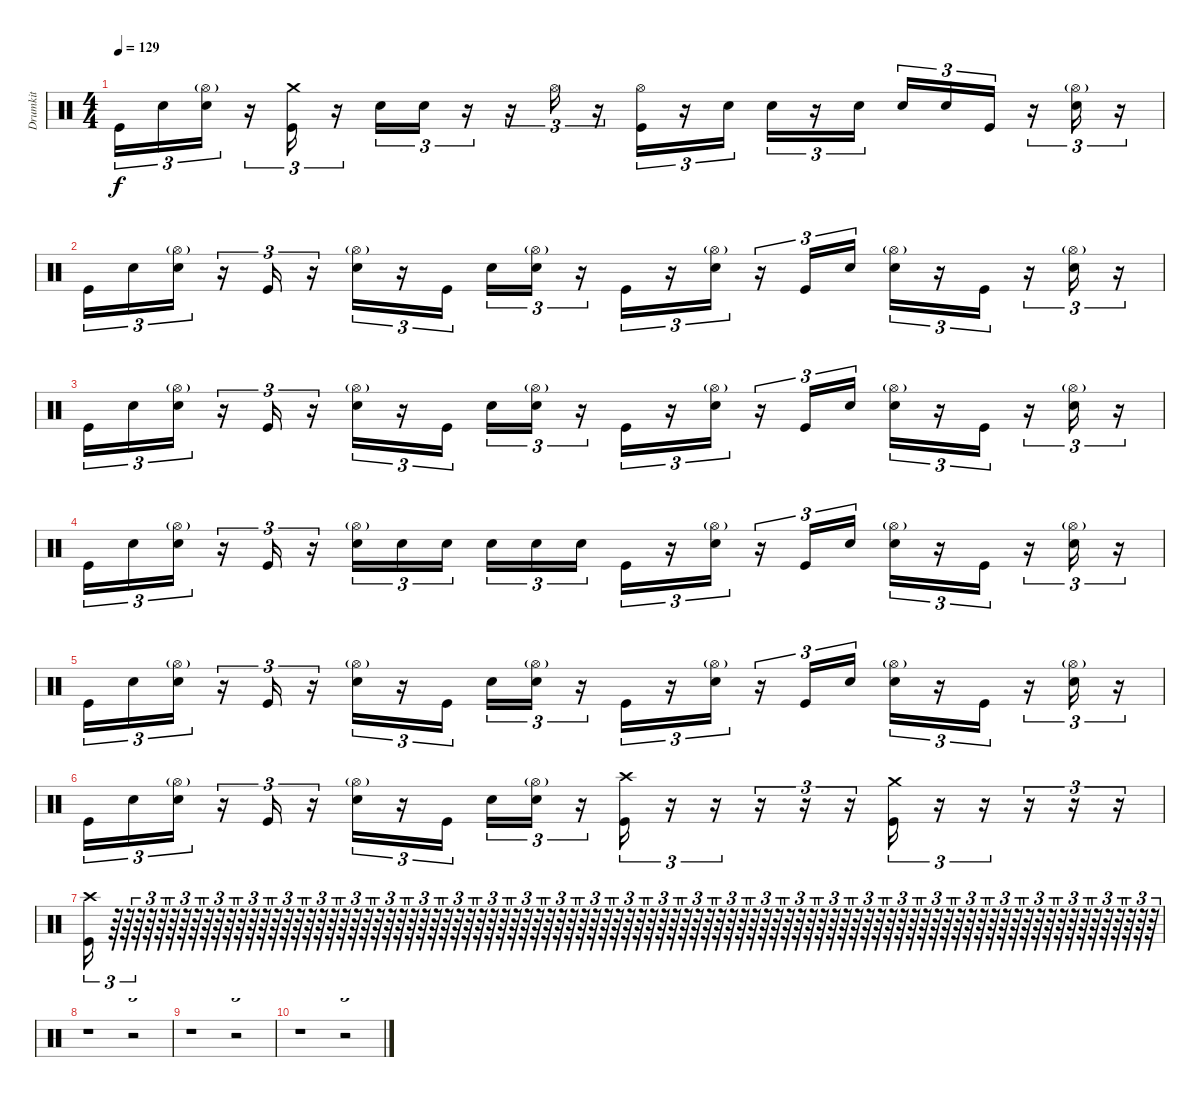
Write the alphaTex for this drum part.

\track ("Drumkit" "Drumkit") {instrument percussion}
\staff {score}
\articulation defaults
\ts (4 4)
\tempo 129
\clef neutral
\ks c "Kick (hit)".16{tu (3 2) dy f} "Snare (hit) 2".16{tu (3 2)}
("Snare (hit) 2" "Hi-Hat (open)"{g}).16{tu (3 2)} r.16{tu (3 2)} ("Kick (hit)" "Crash medium (hit)").16{tu (3 2)} r.16{tu (3 2)} "Snare (hit) 2".16{tu (3 2)} "Snare (hit) 2".16{tu (3 2)} r.16{tu (3 2)} r.16{tu (3 2)} "Hi-Hat (open)".16{tu (3 2)} r.16{tu (3 2)} ("Kick (hit)" "Hi-Hat (open)").16{tu (3 2)} r.16{tu (3 2)} "Snare (hit) 2".16{tu (3 2)} "Snare (hit) 2".16{tu (3 2)} r.16{tu (3 2)} "Snare (hit) 2".16{tu (3 2)} "Snare (hit) 2".16{tu (3 2)} "Snare (hit) 2".16{tu (3 2)} "Kick (hit)".16{tu (3 2)} r.16{tu (3 2)} ("Snare (hit) 2" "Hi-Hat (open)"{g}).16{tu (3 2)} r.16{tu (3 2)} |
"Kick (hit)".16{tu (3 2)} "Snare (hit) 2".16{tu (3 2)} ("Snare (hit) 2" "Hi-Hat (open)"{g}).16{tu (3 2)} r.16{tu (3 2)} "Kick (hit)".16{tu (3 2)} r.16{tu (3 2)} ("Snare (hit) 2" "Hi-Hat (open)"{g}).16{tu (3 2)} r.16{tu (3 2)} "Kick (hit)".16{tu (3 2)} "Snare (hit) 2".16{tu (3 2)} ("Snare (hit) 2" "Hi-Hat (open)"{g}).16{tu (3 2)} r.16{tu (3 2)} "Kick (hit)".16{tu (3 2)} r.16{tu (3 2)} ("Snare (hit) 2" "Hi-Hat (open)"{g}).16{tu (3 2)} r.16{tu (3 2)} "Kick (hit)".16{tu (3 2)} "Snare (hit) 2".16{tu (3 2)} ("Snare (hit) 2" "Hi-Hat (open)"{g}).16{tu (3 2)} r.16{tu (3 2)} "Kick (hit)".16{tu (3 2)} r.16{tu (3 2)} ("Snare (hit) 2" "Hi-Hat (open)"{g}).16{tu (3 2)} r.16{tu (3 2)} |
"Kick (hit)".16{tu (3 2)} "Snare (hit) 2".16{tu (3 2)} ("Snare (hit) 2" "Hi-Hat (open)"{g}).16{tu (3 2)} r.16{tu (3 2)} "Kick (hit)".16{tu (3 2)} r.16{tu (3 2)} ("Snare (hit) 2" "Hi-Hat (open)"{g}).16{tu (3 2)} r.16{tu (3 2)} "Kick (hit)".16{tu (3 2)} "Snare (hit) 2".16{tu (3 2)} ("Snare (hit) 2" "Hi-Hat (open)"{g}).16{tu (3 2)} r.16{tu (3 2)} "Kick (hit)".16{tu (3 2)} r.16{tu (3 2)} ("Snare (hit) 2" "Hi-Hat (open)"{g}).16{tu (3 2)} r.16{tu (3 2)} "Kick (hit)".16{tu (3 2)} "Snare (hit) 2".16{tu (3 2)} ("Snare (hit) 2" "Hi-Hat (open)"{g}).16{tu (3 2)} r.16{tu (3 2)} "Kick (hit)".16{tu (3 2)} r.16{tu (3 2)} ("Snare (hit) 2" "Hi-Hat (open)"{g}).16{tu (3 2)} r.16{tu (3 2)} |
"Kick (hit)".16{tu (3 2)} "Snare (hit) 2".16{tu (3 2)} ("Snare (hit) 2" "Hi-Hat (open)"{g}).16{tu (3 2)} r.16{tu (3 2)} "Kick (hit)".16{tu (3 2)} r.16{tu (3 2)} ("Snare (hit) 2" "Hi-Hat (open)"{g}).16{tu (3 2)} "Snare (hit) 2".16{tu (3 2)} "Snare (hit) 2".16{tu (3 2)} "Snare (hit) 2".16{tu (3 2)} "Snare (hit) 2".16{tu (3 2)} "Snare (hit) 2".16{tu (3 2)} "Kick (hit)".16{tu (3 2)} r.16{tu (3 2)} ("Snare (hit) 2" "Hi-Hat (open)"{g}).16{tu (3 2)} r.16{tu (3 2)} "Kick (hit)".16{tu (3 2)} "Snare (hit) 2".16{tu (3 2)} ("Snare (hit) 2" "Hi-Hat (open)"{g}).16{tu (3 2)} r.16{tu (3 2)} "Kick (hit)".16{tu (3 2)} r.16{tu (3 2)} ("Snare (hit) 2" "Hi-Hat (open)"{g}).16{tu (3 2)} r.16{tu (3 2)} |
"Kick (hit)".16{tu (3 2)} "Snare (hit) 2".16{tu (3 2)} ("Snare (hit) 2" "Hi-Hat (open)"{g}).16{tu (3 2)} r.16{tu (3 2)} "Kick (hit)".16{tu (3 2)} r.16{tu (3 2)} ("Snare (hit) 2" "Hi-Hat (open)"{g}).16{tu (3 2)} r.16{tu (3 2)} "Kick (hit)".16{tu (3 2)} "Snare (hit) 2".16{tu (3 2)} ("Snare (hit) 2" "Hi-Hat (open)"{g}).16{tu (3 2)} r.16{tu (3 2)} "Kick (hit)".16{tu (3 2)} r.16{tu (3 2)} ("Snare (hit) 2" "Hi-Hat (open)"{g}).16{tu (3 2)} r.16{tu (3 2)} "Kick (hit)".16{tu (3 2)} "Snare (hit) 2".16{tu (3 2)} ("Snare (hit) 2" "Hi-Hat (open)"{g}).16{tu (3 2)} r.16{tu (3 2)} "Kick (hit)".16{tu (3 2)} r.16{tu (3 2)} ("Snare (hit) 2" "Hi-Hat (open)"{g}).16{tu (3 2)} r.16{tu (3 2)} |
"Kick (hit)".16{tu (3 2)} "Snare (hit) 2".16{tu (3 2)} ("Snare (hit) 2" "Hi-Hat (open)"{g}).16{tu (3 2)} r.16{tu (3 2)} "Kick (hit)".16{tu (3 2)} r.16{tu (3 2)} ("Snare (hit) 2" "Hi-Hat (open)"{g}).16{tu (3 2)} r.16{tu (3 2)} "Kick (hit)".16{tu (3 2)} "Snare (hit) 2".16{tu (3 2)} ("Snare (hit) 2" "Hi-Hat (open)"{g}).16{tu (3 2)} r.16{tu (3 2)} ("Kick (hit)" "Crash high (hit)").16{tu (3 2)} r.16{tu (3 2)} r.16{tu (3 2)} r.16{tu (3 2)} r.16{tu (3 2)} r.16{tu (3 2)} ("Kick (hit)" "Crash medium (hit)").16{tu (3 2)} r.16{tu (3 2)} r.16{tu (3 2)} r.16{tu (3 2)} r.16{tu (3 2)} r.16{tu (3 2)} |
("Kick (hit)" "Crash high (hit)").16{tu (3 2)} r.64{tu (3 2)} r.64{tu (3 2)} r.64{tu (3 2)} r.64{tu (3 2)} r.64{tu (3 2)} r.64{tu (3 2)} r.64{tu (3 2)} r.64{tu (3 2)} r.64{tu (3 2)} r.64{tu (3 2)} r.64{tu (3 2)} r.64{tu (3 2)} r.64{tu (3 2)} r.64{tu (3 2)} r.64{tu (3 2)} r.64{tu (3 2)} r.64{tu (3 2)} r.64{tu (3 2)} r.64{tu (3 2)} r.64{tu (3 2)} r.64{tu (3 2)} r.64{tu (3 2)} r.64{tu (3 2)} r.64{tu (3 2)} r.64{tu (3 2)} r.64{tu (3 2)} r.64{tu (3 2)} r.64{tu (3 2)} r.64{tu (3 2)} r.64{tu (3 2)} r.64{tu (3 2)} r.64{tu (3 2)} r.64{tu (3 2)} r.64{tu (3 2)} r.64{tu (3 2)} r.64{tu (3 2)} r.64{tu (3 2)} r.64{tu (3 2)} r.64{tu (3 2)} r.64{tu (3 2)} r.64{tu (3 2)} r.64{tu (3 2)} r.64{tu (3 2)} r.64{tu (3 2)} r.64{tu (3 2)} r.64{tu (3 2)} r.64{tu (3 2)} r.64{tu (3 2)} r.64{tu (3 2)} r.64{tu (3 2)} r.64{tu (3 2)} r.64{tu (3 2)} r.64{tu (3 2)} r.64{tu (3 2)} r.64{tu (3 2)} r.64{tu (3 2)} r.64{tu (3 2)} r.64{tu (3 2)} r.64{tu (3 2)} r.64{tu (3 2)} r.64{tu (3 2)} r.64{tu (3 2)} r.64{tu (3 2)} r.64{tu (3 2)} r.64{tu (3 2)} r.64{tu (3 2)} r.64{tu (3 2)} r.64{tu (3 2)} r.64{tu (3 2)} r.64{tu (3 2)} r.64{tu (3 2)} r.64{tu (3 2)} r.64{tu (3 2)} r.64{tu (3 2)} r.64{tu (3 2)} r.64{tu (3 2)} r.64{tu (3 2)} r.64{tu (3 2)} r.64{tu (3 2)} r.64{tu (3 2)} r.64{tu (3 2)} r.64{tu (3 2)} r.64{tu (3 2)} r.64{tu (3 2)} r.64{tu (3 2)} r.64{tu (3 2)} r.64{tu (3 2)} r.64{tu (3 2)} r.64{tu (3 2)} r.64{tu (3 2)} r.64{tu (3 2)} r.64{tu (3 2)} |
r.1{tu (3 2)} r.2{tu (3 2)} |
r.1{tu (3 2)} r.2{tu (3 2)} |
r.1{tu (3 2)} r.2{tu (3 2)}
